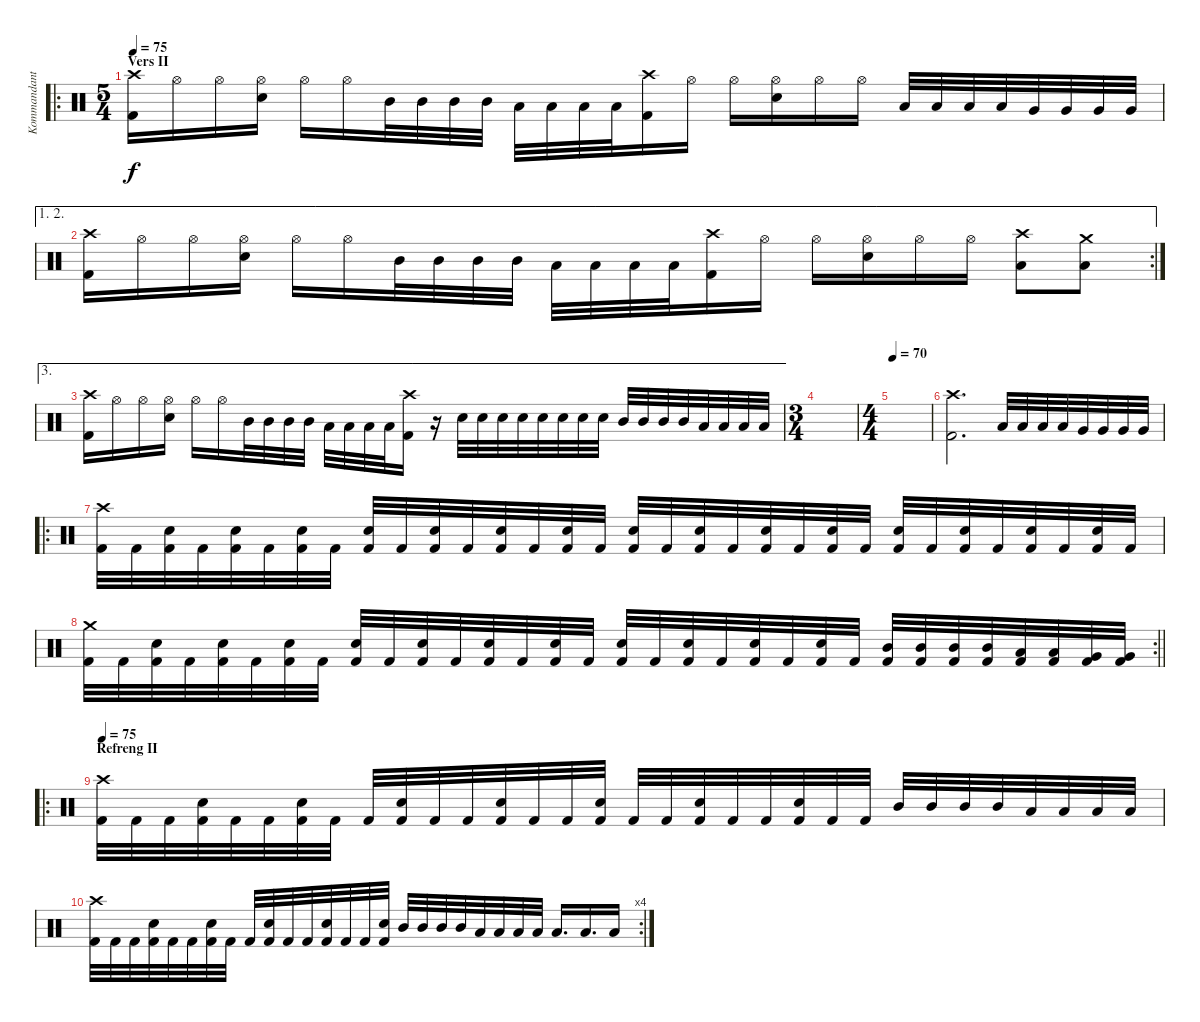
\track ("Kommandanten" "Kommandant") {instrument percussion}
\staff {score}
\articulation defaults
\ro
\ts (5 4)
\section ("" "Vers II")
\tempo 75
\clef neutral
\ks c
("Crash high (hit)" "Kick (hit) 2").16{dy f} "Hi-Hat (open)".16 "Hi-Hat (open)".16 ("Hi-Hat (open)" "Snare (hit) 2").16 "Hi-Hat (open)".16 "Hi-Hat (open)".16 "Mid Tom (hit)".32 "Mid Tom (hit)".32 "Mid Tom (hit)".32 "Mid Tom (hit)".32 "Low Tom (hit)".32 "Low Tom (hit)".32 "Low Tom (hit)".32 "Low Tom (hit)".32 ("Crash high (hit)" "Kick (hit) 2").16 "Hi-Hat (open)".16 "Hi-Hat (open)".16 ("Hi-Hat (open)" "Snare (hit) 2").16 "Hi-Hat (open)".16 "Hi-Hat (open)".16 "Low Tom (hit)".32 "Low Tom (hit)".32 "Low Tom (hit)".32 "Low Tom (hit)".32 "Very Low Tom (hit)".32 "Very Low Tom (hit)".32 "Very Low Tom (hit)".32 "Very Low Tom (hit)".32 |
\ae (1 2)
\rc 2
("Crash high (hit)" "Kick (hit) 2").16 "Hi-Hat (open)".16 "Hi-Hat (open)".16 ("Hi-Hat (open)" "Snare (hit) 2").16 "Hi-Hat (open)".16 "Hi-Hat (open)".16 "Mid Tom (hit)".32 "Mid Tom (hit)".32 "Mid Tom (hit)".32 "Mid Tom (hit)".32 "Low Tom (hit)".32 "Low Tom (hit)".32 "Low Tom (hit)".32 "Low Tom (hit)".32 ("Crash high (hit)" "Kick (hit) 2").16 "Hi-Hat (open)".16 "Hi-Hat (open)".16 ("Hi-Hat (open)" "Snare (hit) 2").16 "Hi-Hat (open)".16 "Hi-Hat (open)".16 ("Crash high (hit)" "Low Floor Tom (hit)").8 ("Crash medium (hit)" "Low Floor Tom (hit)").8 |
\ae 3
("Crash high (hit)" "Kick (hit) 2").16 "Hi-Hat (open)".16 "Hi-Hat (open)".16 ("Hi-Hat (open)" "Snare (hit) 2").16 "Hi-Hat (open)".16 "Hi-Hat (open)".16 "Mid Tom (hit)".32 "Mid Tom (hit)".32 "Mid Tom (hit)".32 "Mid Tom (hit)".32 "Low Tom (hit)".32 "Low Tom (hit)".32 "Low Tom (hit)".32 "Low Tom (hit)".32 ("Crash high (hit)" "Kick (hit) 2").16 r.16 "Snare (hit) 2".32 "Snare (hit) 2".32 "Snare (hit) 2".32 "Snare (hit) 2".32 "Snare (hit) 2".32 "Snare (hit) 2".32 "Snare (hit) 2".32 "Snare (hit) 2".32 "Mid Tom (hit)".32 "Mid Tom (hit)".32 "Mid Tom (hit)".32 "Mid Tom (hit)".32 "Low Tom (hit)".32 "Low Tom (hit)".32 "Low Tom (hit)".32 "Low Tom (hit)".32 |
\ts (3 4)
|
\ts (4 4)
\tempo 70
|
("Crash high (hit)" "Kick (hit) 2").2{d} "Low Tom (hit)".32 "Low Tom (hit)".32 "Low Tom (hit)".32 "Low Tom (hit)".32 "Very Low Tom (hit)".32 "Very Low Tom (hit)".32 "Very Low Tom (hit)".32 "Very Low Tom (hit)".32 |
\ro
("Crash high (hit)" "Kick (hit) 2").32 "Kick (hit) 2".32 ("Snare (hit) 2" "Kick (hit) 2").32 "Kick (hit) 2".32 ("Snare (hit) 2" "Kick (hit) 2").32 "Kick (hit) 2".32 ("Snare (hit) 2" "Kick (hit) 2").32 "Kick (hit) 2".32 ("Snare (hit) 2" "Kick (hit) 2").32 "Kick (hit) 2".32 ("Snare (hit) 2" "Kick (hit) 2").32 "Kick (hit) 2".32 ("Snare (hit) 2" "Kick (hit) 2").32 "Kick (hit) 2".32 ("Snare (hit) 2" "Kick (hit) 2").32 "Kick (hit) 2".32 ("Snare (hit) 2" "Kick (hit) 2").32 "Kick (hit) 2".32 ("Snare (hit) 2" "Kick (hit) 2").32 "Kick (hit) 2".32 ("Snare (hit) 2" "Kick (hit) 2").32 "Kick (hit) 2".32 ("Snare (hit) 2" "Kick (hit) 2").32 "Kick (hit) 2".32 ("Snare (hit) 2" "Kick (hit) 2").32 "Kick (hit) 2".32 ("Snare (hit) 2" "Kick (hit) 2").32 "Kick (hit) 2".32 ("Snare (hit) 2" "Kick (hit) 2").32 "Kick (hit) 2".32 ("Snare (hit) 2" "Kick (hit) 2").32 "Kick (hit) 2".32 |
\rc 2
\barLineRight lightlight
("Crash medium (hit)" "Kick (hit) 2").32 "Kick (hit) 2".32 ("Snare (hit) 2" "Kick (hit) 2").32 "Kick (hit) 2".32 ("Snare (hit) 2" "Kick (hit) 2").32 "Kick (hit) 2".32 ("Snare (hit) 2" "Kick (hit) 2").32 "Kick (hit) 2".32 ("Snare (hit) 2" "Kick (hit) 2").32 "Kick (hit) 2".32 ("Snare (hit) 2" "Kick (hit) 2").32 "Kick (hit) 2".32 ("Snare (hit) 2" "Kick (hit) 2").32 "Kick (hit) 2".32 ("Snare (hit) 2" "Kick (hit) 2").32 "Kick (hit) 2".32 ("Snare (hit) 2" "Kick (hit) 2").32 "Kick (hit) 2".32 ("Snare (hit) 2" "Kick (hit) 2").32 "Kick (hit) 2".32 ("Snare (hit) 2" "Kick (hit) 2").32 "Kick (hit) 2".32 ("Snare (hit) 2" "Kick (hit) 2").32 "Kick (hit) 2".32 ("Mid Tom (hit)" "Kick (hit) 2").32 ("Mid Tom (hit)" "Kick (hit) 2").32 ("Mid Tom (hit)" "Kick (hit) 2").32 ("Mid Tom (hit)" "Kick (hit) 2").32 ("Low Tom (hit)" "Kick (hit) 2").32 ("Low Tom (hit)" "Kick (hit) 2").32 ("Very Low Tom (hit)" "Kick (hit) 2").32 ("Very Low Tom (hit)" "Kick (hit) 2").32 |
\ro
\section ("" "Refreng II")
\tempo 75
("Crash high (hit)" "Kick (hit) 2").32 "Kick (hit) 2".32 "Kick (hit) 2".32 ("Snare (hit) 2" "Kick (hit) 2").32 "Kick (hit) 2".32 "Kick (hit) 2".32 ("Snare (hit) 2" "Kick (hit) 2").32 "Kick (hit) 2".32 "Kick (hit) 2".32 ("Snare (hit) 2" "Kick (hit) 2").32 "Kick (hit) 2".32 "Kick (hit) 2".32 ("Snare (hit) 2" "Kick (hit) 2").32 "Kick (hit) 2".32 "Kick (hit) 2".32 ("Snare (hit) 2" "Kick (hit) 2").32 "Kick (hit) 2".32 "Kick (hit) 2".32 ("Snare (hit) 2" "Kick (hit) 2").32 "Kick (hit) 2".32 "Kick (hit) 2".32 ("Snare (hit) 2" "Kick (hit) 2").32 "Kick (hit) 2".32 "Kick (hit) 2".32 "Mid Tom (hit)".32 "Mid Tom (hit)".32 "Mid Tom (hit)".32 "Mid Tom (hit)".32 "Low Tom (hit)".32 "Low Tom (hit)".32 "Low Tom (hit)".32 "Low Tom (hit)".32 |
\rc 4
("Crash high (hit)" "Kick (hit) 2").32 "Kick (hit) 2".32 "Kick (hit) 2".32 ("Snare (hit) 2" "Kick (hit) 2").32 "Kick (hit) 2".32 "Kick (hit) 2".32 ("Snare (hit) 2" "Kick (hit) 2").32 "Kick (hit) 2".32 "Kick (hit) 2".32 ("Snare (hit) 2" "Kick (hit) 2").32 "Kick (hit) 2".32 "Kick (hit) 2".32 ("Snare (hit) 2" "Kick (hit) 2").32 "Kick (hit) 2".32 "Kick (hit) 2".32 ("Snare (hit) 2" "Kick (hit) 2").32 "Mid Tom (hit)".32 "Mid Tom (hit)".32 "Mid Tom (hit)".32 "Mid Tom (hit)".32 "Low Tom (hit)".32 "Low Tom (hit)".32 "Low Tom (hit)".32 "Low Tom (hit)".32 "Low Floor Tom (hit)".16{d} "Low Floor Tom (hit)".16{d} "Low Floor Tom (hit)".16
